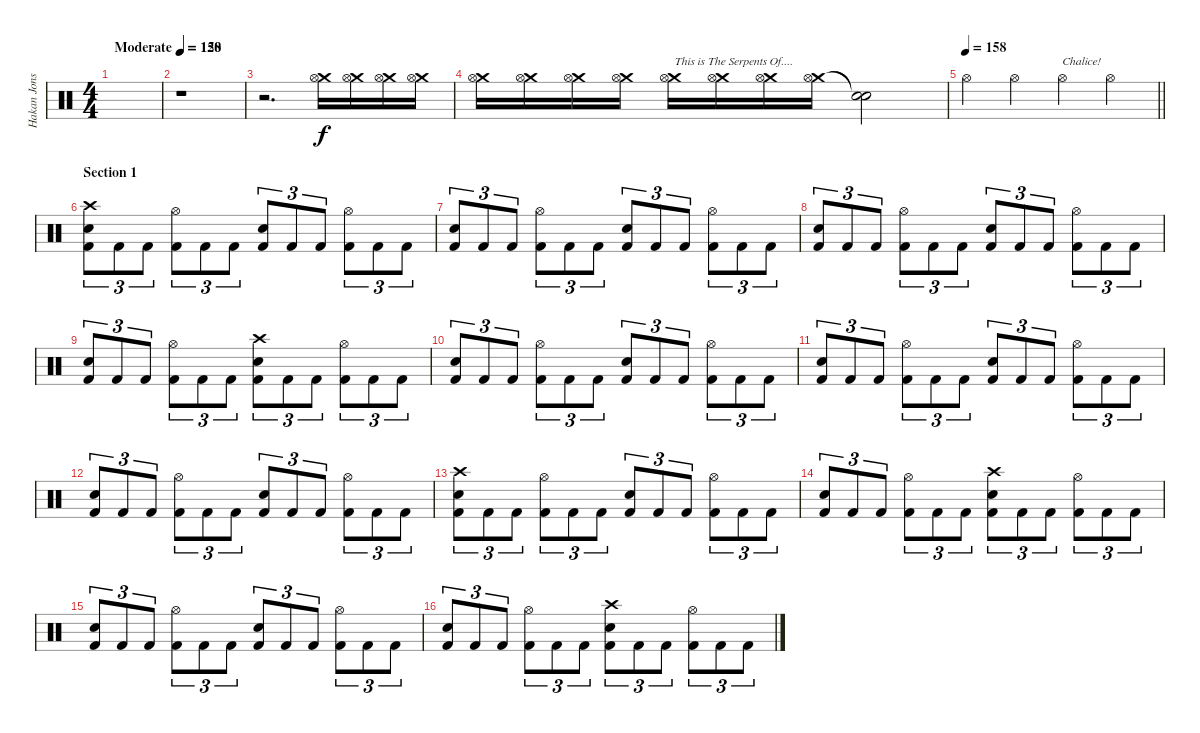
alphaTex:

\track ("Hakan Jonsson" "Hakan Jons") {instrument percussion}
\staff {score}
\articulation defaults
\ts (4 4)
\tempo (158 "Moderate")
\clef neutral
\ks c
|
\tempo 120
r.1 |
r.2{d} ("Crash medium (hit)" "Hi-Hat (open)").16{volume 5} ("Crash medium (hit)" "Hi-Hat (open)").16 ("Crash medium (hit)" "Hi-Hat (open)").16 ("Crash medium (hit)" "Hi-Hat (open)").16 |
("Crash medium (hit)" "Hi-Hat (open)").16{volume 7} ("Crash medium (hit)" "Hi-Hat (open)").16 ("Crash medium (hit)" "Hi-Hat (open)").16 ("Crash medium (hit)" "Hi-Hat (open)").16 ("Crash medium (hit)" "Hi-Hat (open)").16{txt "This is The Serpents Of...." volume 10} ("Crash medium (hit)" "Hi-Hat (open)").16 ("Crash medium (hit)" "Hi-Hat (open)").16 ("Crash medium (hit)" "Hi-Hat (open)").16 ("Snare (hit)"{t} "Snare (hit)"{t}).2 |
\tempo 158
\barLineRight lightlight "Hi-Hat (open)".4{volume 16} "Hi-Hat (open)".4 "Hi-Hat (open)".4{txt "Chalice!"} "Hi-Hat (open)".4
|
\section ("" "Section 1")
("Crash high (hit)" "Electric Snare (hit)" "Kick (hit) 2").8{tu (3 2)} "Kick (hit) 2".8{tu (3 2)} "Kick (hit) 2".8{tu (3 2)} ("Hi-Hat (open)" "Kick (hit) 2").8{tu (3 2)} "Kick (hit) 2".8{tu (3 2)} "Kick (hit) 2".8{tu (3 2)} ("Electric Snare (hit)" "Kick (hit) 2").8{tu (3 2)} "Kick (hit) 2".8{tu (3 2)} "Kick (hit) 2".8{tu (3 2)} ("Hi-Hat (open)" "Kick (hit) 2").8{tu (3 2)} "Kick (hit) 2".8{tu (3 2)} "Kick (hit) 2".8{tu (3 2)} |
("Electric Snare (hit)" "Kick (hit) 2").8{tu (3 2)} "Kick (hit) 2".8{tu (3 2)} "Kick (hit) 2".8{tu (3 2)} ("Hi-Hat (open)" "Kick (hit) 2").8{tu (3 2)} "Kick (hit) 2".8{tu (3 2)} "Kick (hit) 2".8{tu (3 2)} ("Electric Snare (hit)" "Kick (hit) 2").8{tu (3 2)} "Kick (hit) 2".8{tu (3 2)} "Kick (hit) 2".8{tu (3 2)} ("Hi-Hat (open)" "Kick (hit) 2").8{tu (3 2)} "Kick (hit) 2".8{tu (3 2)} "Kick (hit) 2".8{tu (3 2)} |
("Electric Snare (hit)" "Kick (hit) 2").8{tu (3 2)} "Kick (hit) 2".8{tu (3 2)} "Kick (hit) 2".8{tu (3 2)} ("Hi-Hat (open)" "Kick (hit) 2").8{tu (3 2)} "Kick (hit) 2".8{tu (3 2)} "Kick (hit) 2".8{tu (3 2)} ("Electric Snare (hit)" "Kick (hit) 2").8{tu (3 2)} "Kick (hit) 2".8{tu (3 2)} "Kick (hit) 2".8{tu (3 2)} ("Hi-Hat (open)" "Kick (hit) 2").8{tu (3 2)} "Kick (hit) 2".8{tu (3 2)} "Kick (hit) 2".8{tu (3 2)} |
("Electric Snare (hit)" "Kick (hit) 2").8{tu (3 2)} "Kick (hit) 2".8{tu (3 2)} "Kick (hit) 2".8{tu (3 2)} ("Hi-Hat (open)" "Kick (hit) 2").8{tu (3 2)} "Kick (hit) 2".8{tu (3 2)} "Kick (hit) 2".8{tu (3 2)} ("Crash high (hit)" "Electric Snare (hit)" "Kick (hit) 2").8{tu (3 2)} "Kick (hit) 2".8{tu (3 2)} "Kick (hit) 2".8{tu (3 2)} ("Hi-Hat (open)" "Kick (hit) 2").8{tu (3 2)} "Kick (hit) 2".8{tu (3 2)} "Kick (hit) 2".8{tu (3 2)} |
("Electric Snare (hit)" "Kick (hit) 2").8{tu (3 2)} "Kick (hit) 2".8{tu (3 2)} "Kick (hit) 2".8{tu (3 2)} ("Hi-Hat (open)" "Kick (hit) 2").8{tu (3 2)} "Kick (hit) 2".8{tu (3 2)} "Kick (hit) 2".8{tu (3 2)} ("Electric Snare (hit)" "Kick (hit) 2").8{tu (3 2)} "Kick (hit) 2".8{tu (3 2)} "Kick (hit) 2".8{tu (3 2)} ("Hi-Hat (open)" "Kick (hit) 2").8{tu (3 2)} "Kick (hit) 2".8{tu (3 2)} "Kick (hit) 2".8{tu (3 2)} |
("Electric Snare (hit)" "Kick (hit) 2").8{tu (3 2)} "Kick (hit) 2".8{tu (3 2)} "Kick (hit) 2".8{tu (3 2)} ("Hi-Hat (open)" "Kick (hit) 2").8{tu (3 2)} "Kick (hit) 2".8{tu (3 2)} "Kick (hit) 2".8{tu (3 2)} ("Electric Snare (hit)" "Kick (hit) 2").8{tu (3 2)} "Kick (hit) 2".8{tu (3 2)} "Kick (hit) 2".8{tu (3 2)} ("Hi-Hat (open)" "Kick (hit) 2").8{tu (3 2)} "Kick (hit) 2".8{tu (3 2)} "Kick (hit) 2".8{tu (3 2)} |
("Electric Snare (hit)" "Kick (hit) 2").8{tu (3 2)} "Kick (hit) 2".8{tu (3 2)} "Kick (hit) 2".8{tu (3 2)} ("Hi-Hat (open)" "Kick (hit) 2").8{tu (3 2)} "Kick (hit) 2".8{tu (3 2)} "Kick (hit) 2".8{tu (3 2)} ("Electric Snare (hit)" "Kick (hit) 2").8{tu (3 2)} "Kick (hit) 2".8{tu (3 2)} "Kick (hit) 2".8{tu (3 2)} ("Hi-Hat (open)" "Kick (hit) 2").8{tu (3 2)} "Kick (hit) 2".8{tu (3 2)} "Kick (hit) 2".8{tu (3 2)} |
("Crash high (hit)" "Electric Snare (hit)" "Kick (hit) 2").8{tu (3 2)} "Kick (hit) 2".8{tu (3 2)} "Kick (hit) 2".8{tu (3 2)} ("Hi-Hat (open)" "Kick (hit) 2").8{tu (3 2)} "Kick (hit) 2".8{tu (3 2)} "Kick (hit) 2".8{tu (3 2)} ("Electric Snare (hit)" "Kick (hit) 2").8{tu (3 2)} "Kick (hit) 2".8{tu (3 2)} "Kick (hit) 2".8{tu (3 2)} ("Hi-Hat (open)" "Kick (hit) 2").8{tu (3 2)} "Kick (hit) 2".8{tu (3 2)} "Kick (hit) 2".8{tu (3 2)} |
("Electric Snare (hit)" "Kick (hit) 2").8{tu (3 2)} "Kick (hit) 2".8{tu (3 2)} "Kick (hit) 2".8{tu (3 2)} ("Hi-Hat (open)" "Kick (hit) 2").8{tu (3 2)} "Kick (hit) 2".8{tu (3 2)} "Kick (hit) 2".8{tu (3 2)} ("Crash high (hit)" "Electric Snare (hit)" "Kick (hit) 2").8{tu (3 2)} "Kick (hit) 2".8{tu (3 2)} "Kick (hit) 2".8{tu (3 2)} ("Hi-Hat (open)" "Kick (hit) 2").8{tu (3 2)} "Kick (hit) 2".8{tu (3 2)} "Kick (hit) 2".8{tu (3 2)} |
("Electric Snare (hit)" "Kick (hit) 2").8{tu (3 2)} "Kick (hit) 2".8{tu (3 2)} "Kick (hit) 2".8{tu (3 2)} ("Hi-Hat (open)" "Kick (hit) 2").8{tu (3 2)} "Kick (hit) 2".8{tu (3 2)} "Kick (hit) 2".8{tu (3 2)} ("Electric Snare (hit)" "Kick (hit) 2").8{tu (3 2)} "Kick (hit) 2".8{tu (3 2)} "Kick (hit) 2".8{tu (3 2)} ("Hi-Hat (open)" "Kick (hit) 2").8{tu (3 2)} "Kick (hit) 2".8{tu (3 2)} "Kick (hit) 2".8{tu (3 2)} |
("Electric Snare (hit)" "Kick (hit) 2").8{tu (3 2)} "Kick (hit) 2".8{tu (3 2)} "Kick (hit) 2".8{tu (3 2)} ("Hi-Hat (open)" "Kick (hit) 2").8{tu (3 2)} "Kick (hit) 2".8{tu (3 2)} "Kick (hit) 2".8{tu (3 2)} ("Crash high (hit)" "Electric Snare (hit)" "Kick (hit) 2").8{tu (3 2)} "Kick (hit) 2".8{tu (3 2)} "Kick (hit) 2".8{tu (3 2)} ("Hi-Hat (open)" "Kick (hit) 2").8{tu (3 2)} "Kick (hit) 2".8{tu (3 2)} "Kick (hit) 2".8{tu (3 2)}
